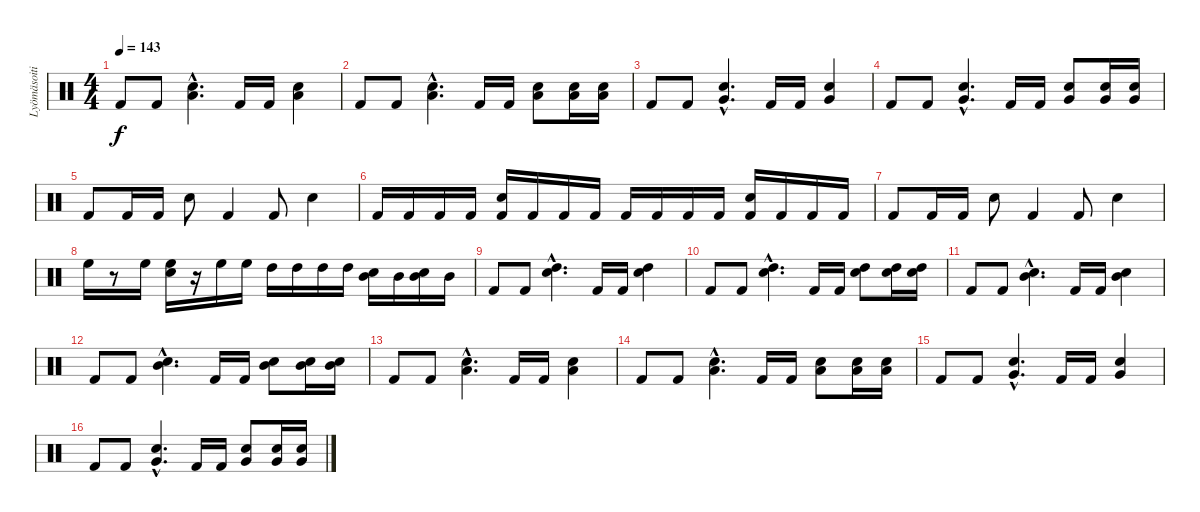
\track ("Lyömäsoitin" "Lyömäsoiti") {instrument percussion}
\staff {score}
\articulation defaults
\ts (4 4)
\tempo 143
\clef neutral
\ks c "Kick (hit) 2".8{dy f} "Kick (hit) 2".8
("Electric Snare (hit)"{hac} "Low Tom (hit)"{hac}).4{d} "Kick (hit) 2".16 "Kick (hit) 2".16 ("Electric Snare (hit)" "Low Tom (hit)").4 |
"Kick (hit) 2".8 "Kick (hit) 2".8 ("Electric Snare (hit)"{hac} "Low Tom (hit)"{hac}).4{d} "Kick (hit) 2".16 "Kick (hit) 2".16 ("Electric Snare (hit)" "Low Tom (hit)").8 ("Electric Snare (hit)" "Low Tom (hit)").16 ("Electric Snare (hit)" "Low Tom (hit)").16 |
"Kick (hit) 2".8 "Kick (hit) 2".8 ("Electric Snare (hit)"{hac} "Very Low Tom (hit)"{hac}).4{d} "Kick (hit) 2".16 "Kick (hit) 2".16 ("Electric Snare (hit)" "Very Low Tom (hit)").4 |
"Kick (hit) 2".8 "Kick (hit) 2".8 ("Electric Snare (hit)"{hac} "Very Low Tom (hit)"{hac}).4{d} "Kick (hit) 2".16 "Kick (hit) 2".16 ("Electric Snare (hit)" "Very Low Tom (hit)").8 ("Electric Snare (hit)" "Very Low Tom (hit)").16 ("Electric Snare (hit)" "Very Low Tom (hit)").16 |
"Kick (hit) 2".8 "Kick (hit) 2".16 "Kick (hit) 2".16 "Electric Snare (hit)".8 "Kick (hit) 2".4 "Kick (hit) 2".8 "Electric Snare (hit)".4 |
"Kick (hit) 2".16 "Kick (hit) 2".16 "Kick (hit) 2".16 "Kick (hit) 2".16 ("Kick (hit) 2" "Electric Snare (hit)").16 "Kick (hit) 2".16 "Kick (hit) 2".16 "Kick (hit) 2".16 "Kick (hit) 2".16 "Kick (hit) 2".16 "Kick (hit) 2".16 "Kick (hit) 2".16 ("Kick (hit) 2" "Electric Snare (hit)").16 "Kick (hit) 2".16 "Kick (hit) 2".16 "Kick (hit) 2".16 |
"Kick (hit) 2".8 "Kick (hit) 2".16 "Kick (hit) 2".16 "Electric Snare (hit)".8 "Kick (hit) 2".4 "Kick (hit) 2".8 "Electric Snare (hit)".4 |
"High Floor Tom (hit)".16 r.8 "High Floor Tom (hit)".16 ("High Floor Tom (hit)" "Electric Snare (hit)").16 r.16 "High Floor Tom (hit)".16 "High Floor Tom (hit)".16 "High Tom (hit)".16 "High Tom (hit)".16 "High Tom (hit)".16 "High Tom (hit)".16 ("Mid Tom (hit)" "Electric Snare (hit)").16 "Mid Tom (hit)".16 ("Mid Tom (hit)" "Electric Snare (hit)").16 "Mid Tom (hit)".16 |
"Kick (hit) 2".8 "Kick (hit) 2".8 ("Electric Snare (hit)"{hac} "High Tom (hit)"{hac}).4{d} "Kick (hit) 2".16 "Kick (hit) 2".16 ("Electric Snare (hit)" "High Tom (hit)").4 |
"Kick (hit) 2".8{volume 7} "Kick (hit) 2".8 ("Electric Snare (hit)"{hac} "High Tom (hit)"{hac}).4{d} "Kick (hit) 2".16 "Kick (hit) 2".16 ("Electric Snare (hit)" "High Tom (hit)").8 ("Electric Snare (hit)" "High Tom (hit)").16 ("Electric Snare (hit)" "High Tom (hit)").16 |
"Kick (hit) 2".8{volume 5} "Kick (hit) 2".8 ("Electric Snare (hit)"{hac} "Mid Tom (hit)"{hac}).4{d} "Kick (hit) 2".16 "Kick (hit) 2".16 ("Electric Snare (hit)" "Mid Tom (hit)").4 |
"Kick (hit) 2".8{volume 2} "Kick (hit) 2".8 ("Electric Snare (hit)"{hac} "Mid Tom (hit)"{hac}).4{d} "Kick (hit) 2".16 "Kick (hit) 2".16 ("Electric Snare (hit)" "Mid Tom (hit)").8 ("Electric Snare (hit)" "Mid Tom (hit)").16 ("Electric Snare (hit)" "Mid Tom (hit)").16 |
"Kick (hit) 2".8{volume 0} "Kick (hit) 2".8 ("Electric Snare (hit)"{hac} "Low Tom (hit)"{hac}).4{d} "Kick (hit) 2".16 "Kick (hit) 2".16 ("Electric Snare (hit)" "Low Tom (hit)").4 |
"Kick (hit) 2".8 "Kick (hit) 2".8 ("Electric Snare (hit)"{hac} "Low Tom (hit)"{hac}).4{d} "Kick (hit) 2".16 "Kick (hit) 2".16 ("Electric Snare (hit)" "Low Tom (hit)").8 ("Electric Snare (hit)" "Low Tom (hit)").16 ("Electric Snare (hit)" "Low Tom (hit)").16 |
"Kick (hit) 2".8 "Kick (hit) 2".8 ("Electric Snare (hit)"{hac} "Very Low Tom (hit)"{hac}).4{d} "Kick (hit) 2".16 "Kick (hit) 2".16 ("Electric Snare (hit)" "Very Low Tom (hit)").4 |
"Kick (hit) 2".8 "Kick (hit) 2".8 ("Electric Snare (hit)"{hac} "Very Low Tom (hit)"{hac}).4{d} "Kick (hit) 2".16 "Kick (hit) 2".16 ("Electric Snare (hit)" "Very Low Tom (hit)").8 ("Electric Snare (hit)" "Very Low Tom (hit)").16 ("Electric Snare (hit)" "Very Low Tom (hit)").16
